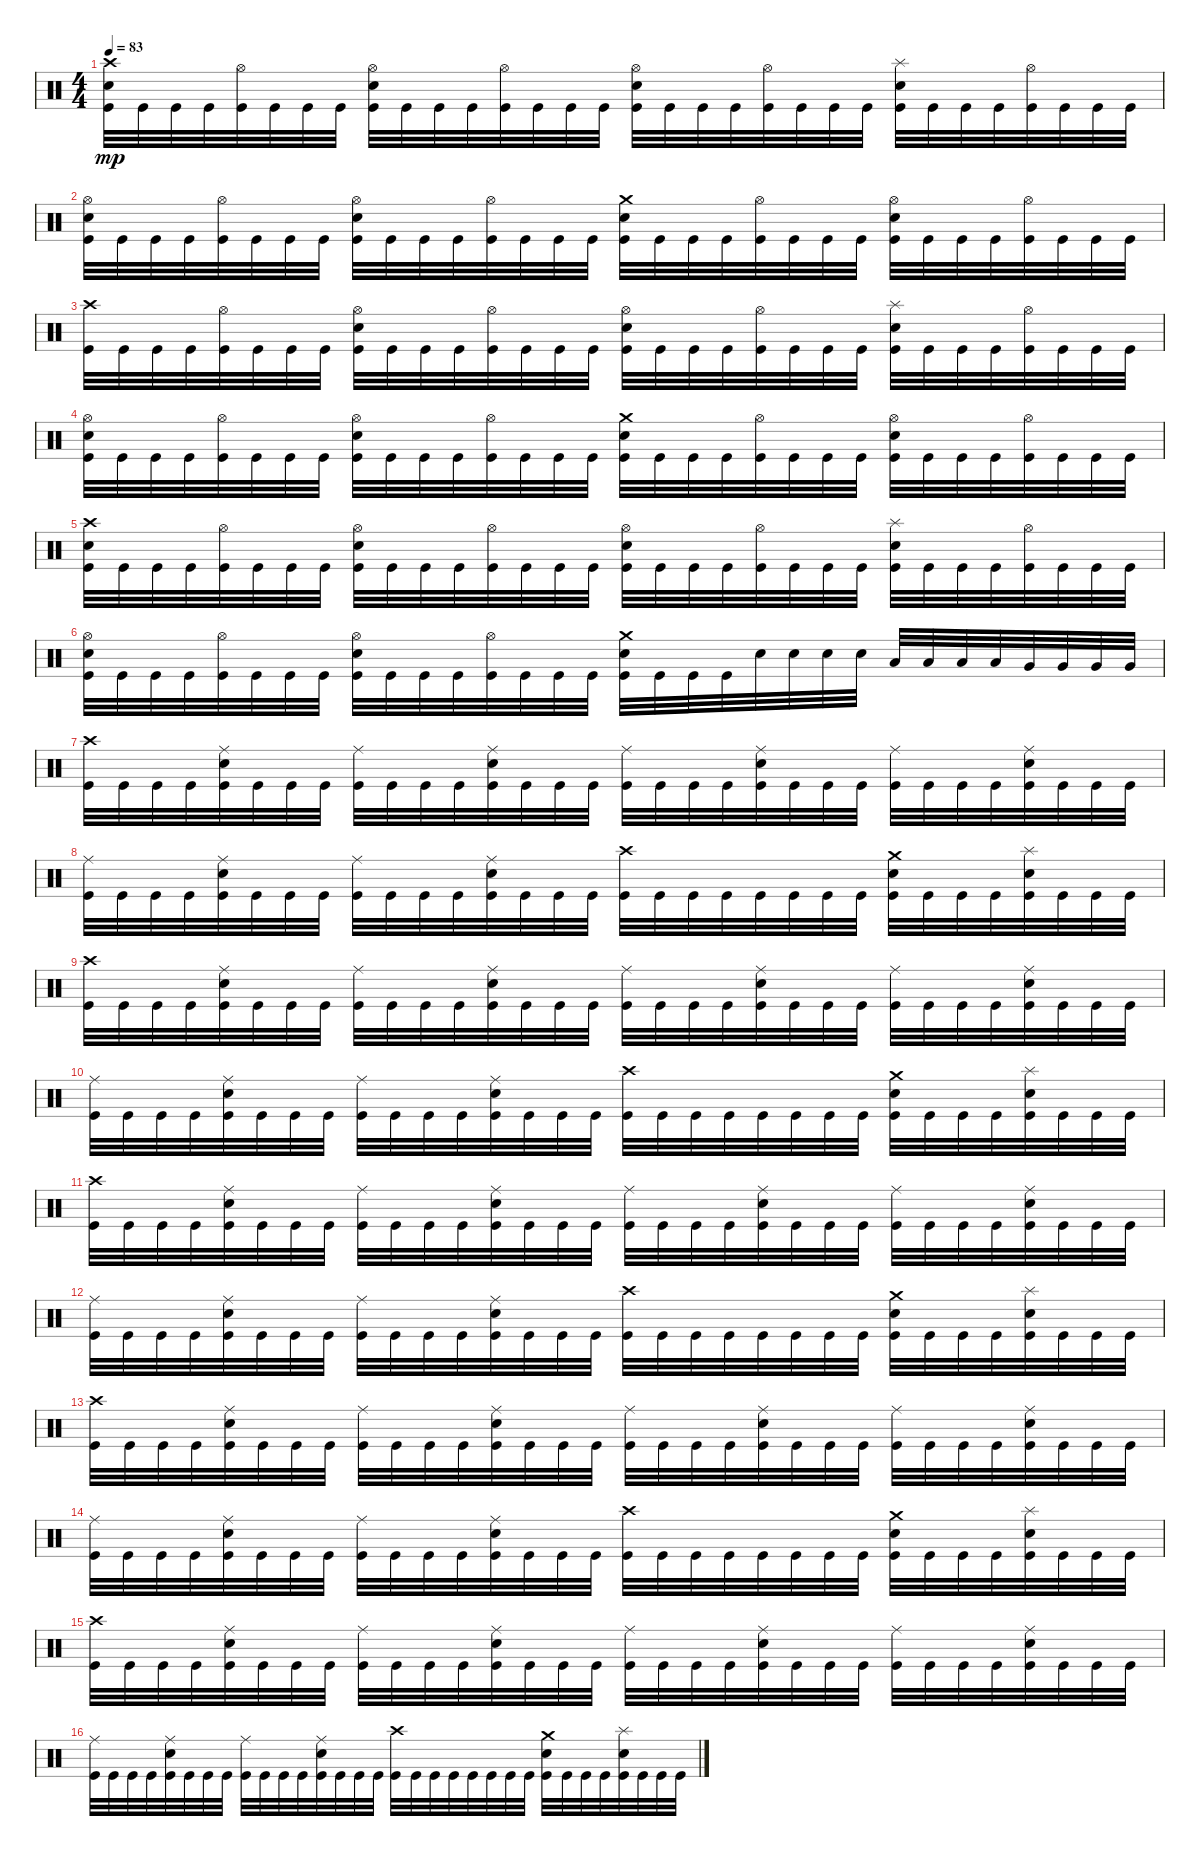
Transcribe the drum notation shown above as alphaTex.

\track "" {instrument percussion}
\staff {score}
\articulation defaults
\ts (4 4)
\tempo 83
\clef neutral
\ks c
("Kick (hit)" "Crash high (hit)" "Snare (hit) 2").32{dy mp} "Kick (hit)".32 "Kick (hit)".32 "Kick (hit)".32 ("Kick (hit)" "Hi-Hat (open)").32 "Kick (hit)".32 "Kick (hit)".32 "Kick (hit)".32 ("Kick (hit)" "Hi-Hat (open)" "Snare (hit) 2").32 "Kick (hit)".32 "Kick (hit)".32 "Kick (hit)".32 ("Kick (hit)" "Hi-Hat (open)").32 "Kick (hit)".32 "Kick (hit)".32 "Kick (hit)".32 ("Kick (hit)" "Hi-Hat (open)" "Snare (hit) 2").32 "Kick (hit)".32 "Kick (hit)".32 "Kick (hit)".32 ("Kick (hit)" "Hi-Hat (open)").32 "Kick (hit)".32 "Kick (hit)".32 "Kick (hit)".32 ("Kick (hit)" "Snare (hit) 2" "Splash (hit)").32 "Kick (hit)".32 "Kick (hit)".32 "Kick (hit)".32 ("Kick (hit)" "Hi-Hat (open)").32 "Kick (hit)".32 "Kick (hit)".32 "Kick (hit)".32 |
("Kick (hit)" "Hi-Hat (open)" "Snare (hit) 2").32 "Kick (hit)".32 "Kick (hit)".32 "Kick (hit)".32 ("Kick (hit)" "Hi-Hat (open)").32 "Kick (hit)".32 "Kick (hit)".32 "Kick (hit)".32 ("Kick (hit)" "Hi-Hat (open)" "Snare (hit) 2").32 "Kick (hit)".32 "Kick (hit)".32 "Kick (hit)".32 ("Kick (hit)" "Hi-Hat (open)").32 "Kick (hit)".32 "Kick (hit)".32 "Kick (hit)".32 ("Kick (hit)" "Crash medium (hit)" "Snare (hit) 2").32 "Kick (hit)".32 "Kick (hit)".32 "Kick (hit)".32 ("Kick (hit)" "Hi-Hat (open)").32 "Kick (hit)".32 "Kick (hit)".32 "Kick (hit)".32 ("Kick (hit)" "Hi-Hat (open)" "Snare (hit) 2").32 "Kick (hit)".32 "Kick (hit)".32 "Kick (hit)".32 ("Kick (hit)" "Hi-Hat (open)").32 "Kick (hit)".32 "Kick (hit)".32 "Kick (hit)".32 |
("Kick (hit)" "Crash high (hit)").32 "Kick (hit)".32 "Kick (hit)".32 "Kick (hit)".32 ("Kick (hit)" "Hi-Hat (open)").32 "Kick (hit)".32 "Kick (hit)".32 "Kick (hit)".32 ("Kick (hit)" "Hi-Hat (open)" "Snare (hit) 2").32 "Kick (hit)".32 "Kick (hit)".32 "Kick (hit)".32 ("Kick (hit)" "Hi-Hat (open)").32 "Kick (hit)".32 "Kick (hit)".32 "Kick (hit)".32 ("Kick (hit)" "Hi-Hat (open)" "Snare (hit) 2").32 "Kick (hit)".32 "Kick (hit)".32 "Kick (hit)".32 ("Kick (hit)" "Hi-Hat (open)").32 "Kick (hit)".32 "Kick (hit)".32 "Kick (hit)".32 ("Kick (hit)" "Snare (hit) 2" "Splash (hit)").32 "Kick (hit)".32 "Kick (hit)".32 "Kick (hit)".32 ("Kick (hit)" "Hi-Hat (open)").32 "Kick (hit)".32 "Kick (hit)".32 "Kick (hit)".32 |
("Kick (hit)" "Hi-Hat (open)" "Snare (hit) 2").32 "Kick (hit)".32 "Kick (hit)".32 "Kick (hit)".32 ("Kick (hit)" "Hi-Hat (open)").32 "Kick (hit)".32 "Kick (hit)".32 "Kick (hit)".32 ("Kick (hit)" "Hi-Hat (open)" "Snare (hit) 2").32 "Kick (hit)".32 "Kick (hit)".32 "Kick (hit)".32 ("Kick (hit)" "Hi-Hat (open)").32 "Kick (hit)".32 "Kick (hit)".32 "Kick (hit)".32 ("Kick (hit)" "Crash medium (hit)" "Snare (hit) 2").32 "Kick (hit)".32 "Kick (hit)".32 "Kick (hit)".32 ("Kick (hit)" "Hi-Hat (open)").32 "Kick (hit)".32 "Kick (hit)".32 "Kick (hit)".32 ("Kick (hit)" "Hi-Hat (open)" "Snare (hit) 2").32 "Kick (hit)".32 "Kick (hit)".32 "Kick (hit)".32 ("Kick (hit)" "Hi-Hat (open)").32 "Kick (hit)".32 "Kick (hit)".32 "Kick (hit)".32 |
("Kick (hit)" "Crash high (hit)" "Snare (hit) 2").32 "Kick (hit)".32 "Kick (hit)".32 "Kick (hit)".32 ("Kick (hit)" "Hi-Hat (open)").32 "Kick (hit)".32 "Kick (hit)".32 "Kick (hit)".32 ("Kick (hit)" "Hi-Hat (open)" "Snare (hit) 2").32 "Kick (hit)".32 "Kick (hit)".32 "Kick (hit)".32 ("Kick (hit)" "Hi-Hat (open)").32 "Kick (hit)".32 "Kick (hit)".32 "Kick (hit)".32 ("Kick (hit)" "Hi-Hat (open)" "Snare (hit) 2").32 "Kick (hit)".32 "Kick (hit)".32 "Kick (hit)".32 ("Kick (hit)" "Hi-Hat (open)").32 "Kick (hit)".32 "Kick (hit)".32 "Kick (hit)".32 ("Kick (hit)" "Snare (hit) 2" "Splash (hit)").32 "Kick (hit)".32 "Kick (hit)".32 "Kick (hit)".32 ("Kick (hit)" "Hi-Hat (open)").32 "Kick (hit)".32 "Kick (hit)".32 "Kick (hit)".32 |
("Kick (hit)" "Hi-Hat (open)" "Snare (hit) 2").32 "Kick (hit)".32 "Kick (hit)".32 "Kick (hit)".32 ("Kick (hit)" "Hi-Hat (open)").32 "Kick (hit)".32 "Kick (hit)".32 "Kick (hit)".32 ("Kick (hit)" "Hi-Hat (open)" "Snare (hit) 2").32 "Kick (hit)".32 "Kick (hit)".32 "Kick (hit)".32 ("Kick (hit)" "Hi-Hat (open)").32 "Kick (hit)".32 "Kick (hit)".32 "Kick (hit)".32 ("Kick (hit)" "Crash medium (hit)" "Snare (hit) 2").32 "Kick (hit)".32 "Kick (hit)".32 "Kick (hit)".32 "Snare (hit) 2".32 "Snare (hit) 2".32 "Snare (hit) 2".32 "Snare (hit) 2".32 "Low Floor Tom (hit)".32 "Low Floor Tom (hit)".32 "Low Floor Tom (hit)".32 "Low Floor Tom (hit)".32 "Very Low Tom (hit)".32 "Very Low Tom (hit)".32 "Very Low Tom (hit)".32 "Very Low Tom (hit)".32 |
("Kick (hit)" "Crash high (hit)").32 "Kick (hit)".32 "Kick (hit)".32 "Kick (hit)".32 ("Snare (hit) 2" "Ride (middle)" "Kick (hit)").32 "Kick (hit)".32 "Kick (hit)".32 "Kick (hit)".32 ("Kick (hit)" "Ride (middle)").32 "Kick (hit)".32 "Kick (hit)".32 "Kick (hit)".32 ("Snare (hit) 2" "Ride (middle)" "Kick (hit)").32 "Kick (hit)".32 "Kick (hit)".32 "Kick (hit)".32 ("Kick (hit)" "Ride (middle)").32 "Kick (hit)".32 "Kick (hit)".32 "Kick (hit)".32 ("Snare (hit) 2" "Ride (middle)" "Kick (hit)").32 "Kick (hit)".32 "Kick (hit)".32 "Kick (hit)".32 ("Kick (hit)" "Ride (middle)").32 "Kick (hit)".32 "Kick (hit)".32 "Kick (hit)".32 ("Snare (hit) 2" "Ride (middle)" "Kick (hit)").32 "Kick (hit)".32 "Kick (hit)".32 "Kick (hit)".32 |
("Kick (hit)" "Ride (middle)").32 "Kick (hit)".32 "Kick (hit)".32 "Kick (hit)".32 ("Snare (hit) 2" "Ride (middle)" "Kick (hit)").32 "Kick (hit)".32 "Kick (hit)".32 "Kick (hit)".32 ("Kick (hit)" "Ride (middle)").32 "Kick (hit)".32 "Kick (hit)".32 "Kick (hit)".32 ("Snare (hit) 2" "Ride (middle)" "Kick (hit)").32 "Kick (hit)".32 "Kick (hit)".32 "Kick (hit)".32 ("Crash high (hit)" "Kick (hit)").32 "Kick (hit)".32 "Kick (hit)".32 "Kick (hit)".32 "Kick (hit)".32 "Kick (hit)".32 "Kick (hit)".32 "Kick (hit)".32 ("Snare (hit) 2" "Crash medium (hit)" "Kick (hit)").32 "Kick (hit)".32 "Kick (hit)".32 "Kick (hit)".32 ("Snare (hit) 2" "Splash (hit)" "Kick (hit)").32 "Kick (hit)".32 "Kick (hit)".32 "Kick (hit)".32 |
("Kick (hit)" "Crash high (hit)").32 "Kick (hit)".32 "Kick (hit)".32 "Kick (hit)".32 ("Snare (hit) 2" "Ride (middle)" "Kick (hit)").32 "Kick (hit)".32 "Kick (hit)".32 "Kick (hit)".32 ("Kick (hit)" "Ride (middle)").32 "Kick (hit)".32 "Kick (hit)".32 "Kick (hit)".32 ("Snare (hit) 2" "Ride (middle)" "Kick (hit)").32 "Kick (hit)".32 "Kick (hit)".32 "Kick (hit)".32 ("Kick (hit)" "Ride (middle)").32 "Kick (hit)".32 "Kick (hit)".32 "Kick (hit)".32 ("Snare (hit) 2" "Ride (middle)" "Kick (hit)").32 "Kick (hit)".32 "Kick (hit)".32 "Kick (hit)".32 ("Kick (hit)" "Ride (middle)").32 "Kick (hit)".32 "Kick (hit)".32 "Kick (hit)".32 ("Snare (hit) 2" "Ride (middle)" "Kick (hit)").32 "Kick (hit)".32 "Kick (hit)".32 "Kick (hit)".32 |
("Kick (hit)" "Ride (middle)").32 "Kick (hit)".32 "Kick (hit)".32 "Kick (hit)".32 ("Snare (hit) 2" "Ride (middle)" "Kick (hit)").32 "Kick (hit)".32 "Kick (hit)".32 "Kick (hit)".32 ("Kick (hit)" "Ride (middle)").32 "Kick (hit)".32 "Kick (hit)".32 "Kick (hit)".32 ("Snare (hit) 2" "Ride (middle)" "Kick (hit)").32 "Kick (hit)".32 "Kick (hit)".32 "Kick (hit)".32 ("Crash high (hit)" "Kick (hit)").32 "Kick (hit)".32 "Kick (hit)".32 "Kick (hit)".32 "Kick (hit)".32 "Kick (hit)".32 "Kick (hit)".32 "Kick (hit)".32 ("Snare (hit) 2" "Crash medium (hit)" "Kick (hit)").32 "Kick (hit)".32 "Kick (hit)".32 "Kick (hit)".32 ("Snare (hit) 2" "Splash (hit)" "Kick (hit)").32 "Kick (hit)".32 "Kick (hit)".32 "Kick (hit)".32 |
("Kick (hit)" "Crash high (hit)").32 "Kick (hit)".32 "Kick (hit)".32 "Kick (hit)".32 ("Snare (hit) 2" "Ride (middle)" "Kick (hit)").32 "Kick (hit)".32 "Kick (hit)".32 "Kick (hit)".32 ("Kick (hit)" "Ride (middle)").32 "Kick (hit)".32 "Kick (hit)".32 "Kick (hit)".32 ("Snare (hit) 2" "Ride (middle)" "Kick (hit)").32 "Kick (hit)".32 "Kick (hit)".32 "Kick (hit)".32 ("Kick (hit)" "Ride (middle)").32 "Kick (hit)".32 "Kick (hit)".32 "Kick (hit)".32 ("Snare (hit) 2" "Ride (middle)" "Kick (hit)").32 "Kick (hit)".32 "Kick (hit)".32 "Kick (hit)".32 ("Kick (hit)" "Ride (middle)").32 "Kick (hit)".32 "Kick (hit)".32 "Kick (hit)".32 ("Snare (hit) 2" "Ride (middle)" "Kick (hit)").32 "Kick (hit)".32 "Kick (hit)".32 "Kick (hit)".32 |
("Kick (hit)" "Ride (middle)").32 "Kick (hit)".32 "Kick (hit)".32 "Kick (hit)".32 ("Snare (hit) 2" "Ride (middle)" "Kick (hit)").32 "Kick (hit)".32 "Kick (hit)".32 "Kick (hit)".32 ("Kick (hit)" "Ride (middle)").32 "Kick (hit)".32 "Kick (hit)".32 "Kick (hit)".32 ("Snare (hit) 2" "Ride (middle)" "Kick (hit)").32 "Kick (hit)".32 "Kick (hit)".32 "Kick (hit)".32 ("Crash high (hit)" "Kick (hit)").32 "Kick (hit)".32 "Kick (hit)".32 "Kick (hit)".32 "Kick (hit)".32 "Kick (hit)".32 "Kick (hit)".32 "Kick (hit)".32 ("Snare (hit) 2" "Crash medium (hit)" "Kick (hit)").32 "Kick (hit)".32 "Kick (hit)".32 "Kick (hit)".32 ("Snare (hit) 2" "Splash (hit)" "Kick (hit)").32 "Kick (hit)".32 "Kick (hit)".32 "Kick (hit)".32 |
("Kick (hit)" "Crash high (hit)").32 "Kick (hit)".32 "Kick (hit)".32 "Kick (hit)".32 ("Snare (hit) 2" "Ride (middle)" "Kick (hit)").32 "Kick (hit)".32 "Kick (hit)".32 "Kick (hit)".32 ("Kick (hit)" "Ride (middle)").32 "Kick (hit)".32 "Kick (hit)".32 "Kick (hit)".32 ("Snare (hit) 2" "Ride (middle)" "Kick (hit)").32 "Kick (hit)".32 "Kick (hit)".32 "Kick (hit)".32 ("Kick (hit)" "Ride (middle)").32 "Kick (hit)".32 "Kick (hit)".32 "Kick (hit)".32 ("Snare (hit) 2" "Ride (middle)" "Kick (hit)").32 "Kick (hit)".32 "Kick (hit)".32 "Kick (hit)".32 ("Kick (hit)" "Ride (middle)").32 "Kick (hit)".32 "Kick (hit)".32 "Kick (hit)".32 ("Snare (hit) 2" "Ride (middle)" "Kick (hit)").32 "Kick (hit)".32 "Kick (hit)".32 "Kick (hit)".32 |
("Kick (hit)" "Ride (middle)").32 "Kick (hit)".32 "Kick (hit)".32 "Kick (hit)".32 ("Snare (hit) 2" "Ride (middle)" "Kick (hit)").32 "Kick (hit)".32 "Kick (hit)".32 "Kick (hit)".32 ("Kick (hit)" "Ride (middle)").32 "Kick (hit)".32 "Kick (hit)".32 "Kick (hit)".32 ("Snare (hit) 2" "Ride (middle)" "Kick (hit)").32 "Kick (hit)".32 "Kick (hit)".32 "Kick (hit)".32 ("Crash high (hit)" "Kick (hit)").32 "Kick (hit)".32 "Kick (hit)".32 "Kick (hit)".32 "Kick (hit)".32 "Kick (hit)".32 "Kick (hit)".32 "Kick (hit)".32 ("Snare (hit) 2" "Crash medium (hit)" "Kick (hit)").32 "Kick (hit)".32 "Kick (hit)".32 "Kick (hit)".32 ("Snare (hit) 2" "Splash (hit)" "Kick (hit)").32 "Kick (hit)".32 "Kick (hit)".32 "Kick (hit)".32 |
("Kick (hit)" "Crash high (hit)").32 "Kick (hit)".32 "Kick (hit)".32 "Kick (hit)".32 ("Snare (hit) 2" "Ride (middle)" "Kick (hit)").32 "Kick (hit)".32 "Kick (hit)".32 "Kick (hit)".32 ("Kick (hit)" "Ride (middle)").32 "Kick (hit)".32 "Kick (hit)".32 "Kick (hit)".32 ("Snare (hit) 2" "Ride (middle)" "Kick (hit)").32 "Kick (hit)".32 "Kick (hit)".32 "Kick (hit)".32 ("Kick (hit)" "Ride (middle)").32 "Kick (hit)".32 "Kick (hit)".32 "Kick (hit)".32 ("Snare (hit) 2" "Ride (middle)" "Kick (hit)").32 "Kick (hit)".32 "Kick (hit)".32 "Kick (hit)".32 ("Kick (hit)" "Ride (middle)").32 "Kick (hit)".32 "Kick (hit)".32 "Kick (hit)".32 ("Snare (hit) 2" "Ride (middle)" "Kick (hit)").32 "Kick (hit)".32 "Kick (hit)".32 "Kick (hit)".32 |
("Kick (hit)" "Ride (middle)").32 "Kick (hit)".32 "Kick (hit)".32 "Kick (hit)".32 ("Snare (hit) 2" "Ride (middle)" "Kick (hit)").32 "Kick (hit)".32 "Kick (hit)".32 "Kick (hit)".32 ("Kick (hit)" "Ride (middle)").32 "Kick (hit)".32 "Kick (hit)".32 "Kick (hit)".32 ("Snare (hit) 2" "Ride (middle)" "Kick (hit)").32 "Kick (hit)".32 "Kick (hit)".32 "Kick (hit)".32 ("Crash high (hit)" "Kick (hit)").32 "Kick (hit)".32 "Kick (hit)".32 "Kick (hit)".32 "Kick (hit)".32 "Kick (hit)".32 "Kick (hit)".32 "Kick (hit)".32 ("Snare (hit) 2" "Crash medium (hit)" "Kick (hit)").32 "Kick (hit)".32 "Kick (hit)".32 "Kick (hit)".32 ("Snare (hit) 2" "Splash (hit)" "Kick (hit)").32 "Kick (hit)".32 "Kick (hit)".32 "Kick (hit)".32
